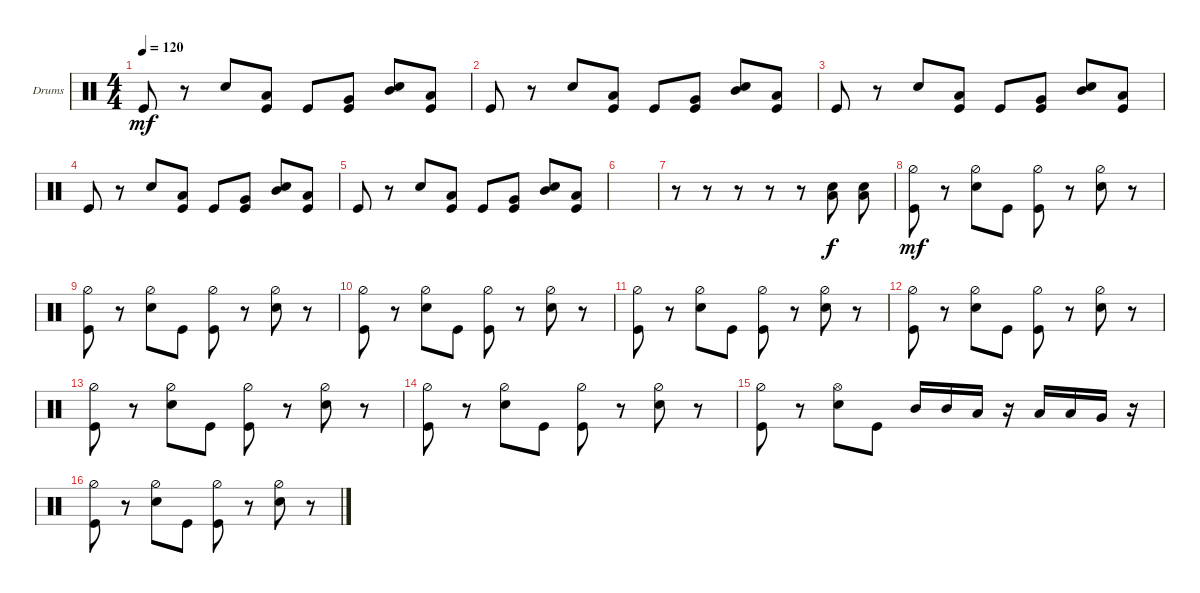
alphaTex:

\defaultSystemsLayout 4
\bracketExtendMode groupsimilarinstruments
\firstSystemTrackNameOrientation horizontal
\otherSystemsTrackNameOrientation horizontal
\track ("Drumkit" "Drums") {instrument percussion}
\staff {score}
\articulation defaults
\ts (4 4)
\tempo 120
\clef neutral
\ks c "Kick (hit)".8{dy mf}
r.8 "Snare (hit) 2".8 ("Kick (hit)" "Low Tom (hit)").8 "Kick (hit)".8 ("Kick (hit)" "Very Low Tom (hit)").8 ("Snare (hit) 2" "Mid Tom (hit)").8 ("Low Tom (hit)" "Kick (hit)").8 |
"Kick (hit)".8 r.8 "Snare (hit) 2".8 ("Kick (hit)" "Low Tom (hit)").8 "Kick (hit)".8 ("Kick (hit)" "Very Low Tom (hit)").8 ("Snare (hit) 2" "Mid Tom (hit)").8 ("Low Tom (hit)" "Kick (hit)").8 |
"Kick (hit)".8 r.8 "Snare (hit) 2".8 ("Kick (hit)" "Low Tom (hit)").8 "Kick (hit)".8 ("Kick (hit)" "Very Low Tom (hit)").8 ("Snare (hit) 2" "Mid Tom (hit)").8 ("Low Tom (hit)" "Kick (hit)").8 |
"Kick (hit)".8 r.8 "Snare (hit) 2".8 ("Kick (hit)" "Low Tom (hit)").8 "Kick (hit)".8 ("Kick (hit)" "Very Low Tom (hit)").8 ("Snare (hit) 2" "Mid Tom (hit)").8 ("Low Tom (hit)" "Kick (hit)").8 |
"Kick (hit)".8 r.8 "Snare (hit) 2".8 ("Kick (hit)" "Low Tom (hit)").8 "Kick (hit)".8 ("Kick (hit)" "Very Low Tom (hit)").8 ("Snare (hit) 2" "Mid Tom (hit)").8 ("Low Tom (hit)" "Kick (hit)").8 |
|
r.8 r.8 r.8 r.8 r.8 ("Low Tom (hit)" "Snare (hit) 2").8{dy f} ("Low Tom (hit)" "Snare (hit) 2").8 |
("Kick (hit)" "Hi-Hat (half)").8{dy mf} r.8 ("Snare (hit) 2" "Hi-Hat (half)").8 "Kick (hit)".8 ("Kick (hit)" "Hi-Hat (half)").8 r.8 ("Snare (hit) 2" "Hi-Hat (half)").8 r.8 |
("Kick (hit)" "Hi-Hat (half)").8 r.8 ("Snare (hit) 2" "Hi-Hat (half)").8 "Kick (hit)".8 ("Kick (hit)" "Hi-Hat (half)").8 r.8 ("Snare (hit) 2" "Hi-Hat (half)").8 r.8 |
("Kick (hit)" "Hi-Hat (half)").8 r.8 ("Snare (hit) 2" "Hi-Hat (half)").8 "Kick (hit)".8 ("Kick (hit)" "Hi-Hat (half)").8 r.8 ("Snare (hit) 2" "Hi-Hat (half)").8 r.8 |
("Kick (hit)" "Hi-Hat (half)").8 r.8 ("Snare (hit) 2" "Hi-Hat (half)").8 "Kick (hit)".8 ("Kick (hit)" "Hi-Hat (half)").8 r.8 ("Snare (hit) 2" "Hi-Hat (half)").8 r.8 |
("Kick (hit)" "Hi-Hat (half)").8 r.8 ("Snare (hit) 2" "Hi-Hat (half)").8 "Kick (hit)".8 ("Kick (hit)" "Hi-Hat (half)").8 r.8 ("Snare (hit) 2" "Hi-Hat (half)").8 r.8 |
("Kick (hit)" "Hi-Hat (half)").8 r.8 ("Snare (hit) 2" "Hi-Hat (half)").8 "Kick (hit)".8 ("Kick (hit)" "Hi-Hat (half)").8 r.8 ("Snare (hit) 2" "Hi-Hat (half)").8 r.8 |
("Kick (hit)" "Hi-Hat (half)").8 r.8 ("Snare (hit) 2" "Hi-Hat (half)").8 "Kick (hit)".8 ("Kick (hit)" "Hi-Hat (half)").8 r.8 ("Snare (hit) 2" "Hi-Hat (half)").8 r.8 |
("Kick (hit)" "Hi-Hat (half)").8 r.8 ("Snare (hit) 2" "Hi-Hat (open)").8 "Kick (hit)".8 "Mid Tom (hit)".16 "Mid Tom (hit)".16 "Low Tom (hit)".16 r.16 "Low Tom (hit)".16 "Low Tom (hit)".16 "Very Low Tom (hit)".16 r.16 |
("Kick (hit)" "Hi-Hat (half)").8 r.8 ("Snare (hit) 2" "Hi-Hat (half)").8 "Kick (hit)".8 ("Kick (hit)" "Hi-Hat (half)").8 r.8 ("Snare (hit) 2" "Hi-Hat (half)").8 r.8
